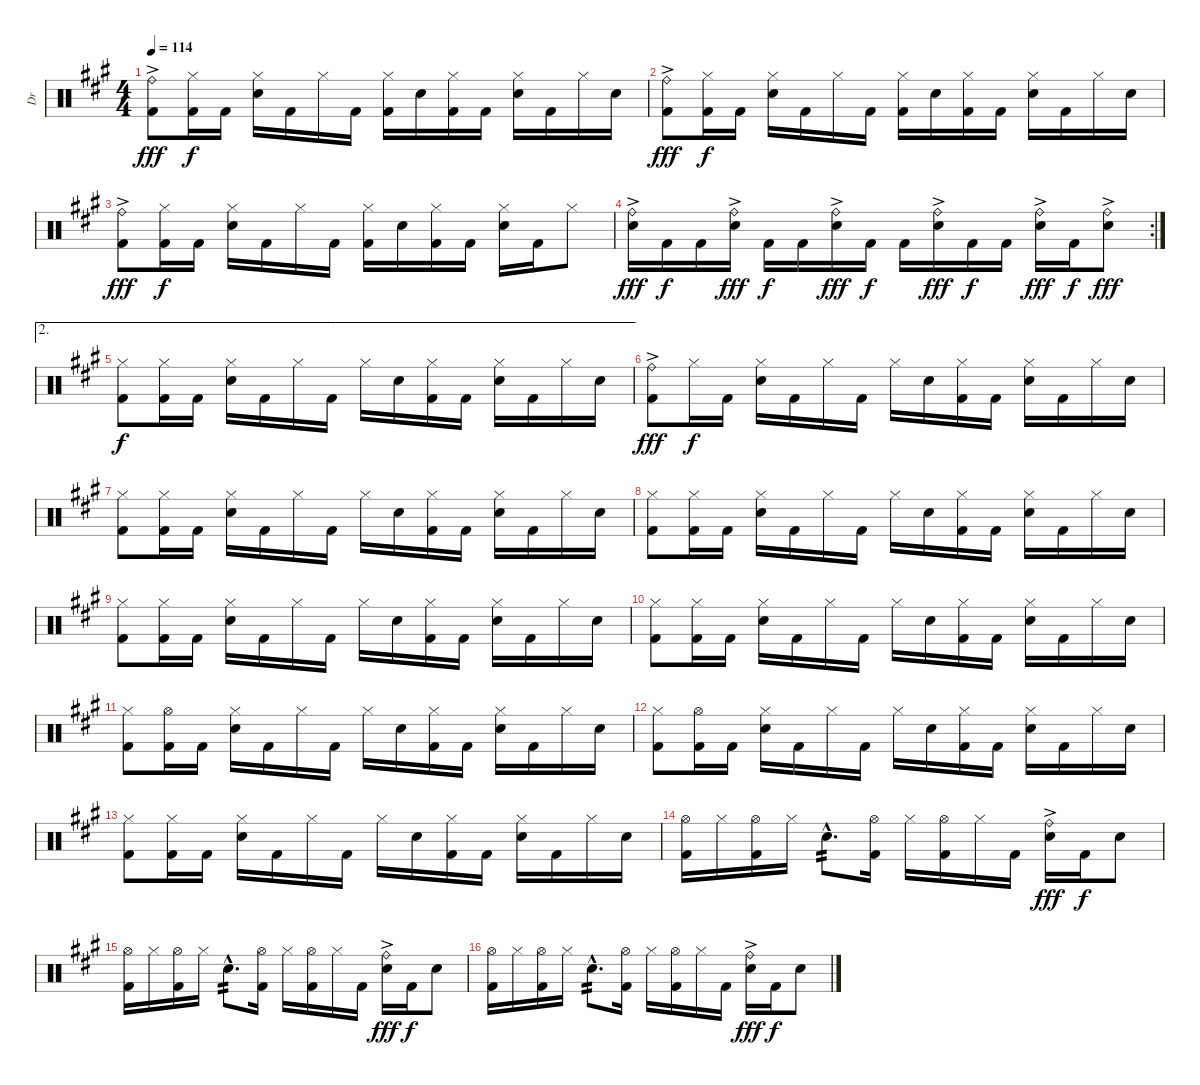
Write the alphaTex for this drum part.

\track ("Dr" "Dr") {instrument percussion}
\staff {score}
\articulation defaults
\ts (4 4)
\tempo 114
\clef neutral
\ks a
("Ride (bell)"{ac} "Kick (hit) 2"{ac}).8{dy fff} ("Hi-Hat (closed)" "Kick (hit) 2").16{dy f} "Kick (hit) 2".16 ("Hi-Hat (closed)" "Electric Snare (hit)").16 "Kick (hit) 2".16 "Hi-Hat (closed)".16 "Kick (hit) 2".16 ("Hi-Hat (closed)" "Kick (hit) 2").16 "Electric Snare (hit)".16 ("Hi-Hat (closed)" "Kick (hit) 2").16 "Kick (hit) 2".16 ("Hi-Hat (closed)" "Electric Snare (hit)").16 "Kick (hit) 2".16 "Hi-Hat (closed)".16 "Electric Snare (hit)".16 |
("Ride (bell)"{ac} "Kick (hit) 2"{ac}).8{dy fff} ("Hi-Hat (closed)" "Kick (hit) 2").16{dy f} "Kick (hit) 2".16 ("Hi-Hat (closed)" "Electric Snare (hit)").16 "Kick (hit) 2".16 "Hi-Hat (closed)".16 "Kick (hit) 2".16 ("Hi-Hat (closed)" "Kick (hit) 2").16 "Electric Snare (hit)".16 ("Hi-Hat (closed)" "Kick (hit) 2").16 "Kick (hit) 2".16 ("Hi-Hat (closed)" "Electric Snare (hit)").16 "Kick (hit) 2".16 "Hi-Hat (closed)".16 "Electric Snare (hit)".16 |
("Ride (bell)"{ac} "Kick (hit) 2"{ac}).8{dy fff} ("Hi-Hat (closed)" "Kick (hit) 2").16{dy f} "Kick (hit) 2".16 ("Hi-Hat (closed)" "Electric Snare (hit)").16 "Kick (hit) 2".16 "Hi-Hat (closed)".16 "Kick (hit) 2".16 ("Hi-Hat (closed)" "Kick (hit) 2").16 "Electric Snare (hit)".16 ("Hi-Hat (closed)" "Kick (hit) 2").16 "Kick (hit) 2".16 ("Hi-Hat (closed)" "Electric Snare (hit)").16 "Kick (hit) 2".16 "Hi-Hat (closed)".8 |
\rc 2
("Ride (bell)"{ac} "Electric Snare (hit)"{ac}).16{dy fff} "Kick (hit) 2".16{dy f} "Kick (hit) 2".16 ("Ride (bell)"{ac} "Electric Snare (hit)"{ac}).16{dy fff} "Kick (hit) 2".16{dy f} "Kick (hit) 2".16 ("Ride (bell)"{ac} "Electric Snare (hit)"{ac}).16{dy fff} "Kick (hit) 2".16{dy f} "Kick (hit) 2".16 ("Ride (bell)"{ac} "Electric Snare (hit)"{ac}).16{dy fff} "Kick (hit) 2".16{dy f} "Kick (hit) 2".16 ("Ride (bell)"{ac} "Electric Snare (hit)"{ac}).16{dy fff} "Kick (hit) 2".16{dy f} ("Ride (bell)"{ac} "Electric Snare (hit)"{ac}).8{dy fff} |
\ae 2
("Hi-Hat (closed)" "Kick (hit) 2").8{dy f} ("Hi-Hat (closed)" "Kick (hit) 2").16 "Kick (hit) 2".16 ("Hi-Hat (closed)" "Electric Snare (hit)").16 "Kick (hit) 2".16 "Hi-Hat (closed)".16 "Kick (hit) 2".16 "Hi-Hat (closed)".16 "Electric Snare (hit)".16 ("Hi-Hat (closed)" "Kick (hit) 2").16 "Kick (hit) 2".16 ("Hi-Hat (closed)" "Electric Snare (hit)").16 "Kick (hit) 2".16 "Hi-Hat (closed)".16 "Electric Snare (hit)".16 |
("Ride (bell)"{ac} "Kick (hit) 2"{ac}).8{dy fff} "Hi-Hat (closed)".16{dy f} "Kick (hit) 2".16 ("Hi-Hat (closed)" "Electric Snare (hit)").16 "Kick (hit) 2".16 "Hi-Hat (closed)".16 "Kick (hit) 2".16 "Hi-Hat (closed)".16 "Electric Snare (hit)".16 ("Hi-Hat (closed)" "Kick (hit) 2").16 "Kick (hit) 2".16 ("Hi-Hat (closed)" "Electric Snare (hit)").16 "Kick (hit) 2".16 "Hi-Hat (closed)".16 "Electric Snare (hit)".16 |
("Hi-Hat (closed)" "Kick (hit) 2").8 ("Hi-Hat (closed)" "Kick (hit) 2").16 "Kick (hit) 2".16 ("Hi-Hat (closed)" "Electric Snare (hit)").16 "Kick (hit) 2".16 "Hi-Hat (closed)".16 "Kick (hit) 2".16 "Hi-Hat (closed)".16 "Electric Snare (hit)".16 ("Hi-Hat (closed)" "Kick (hit) 2").16 "Kick (hit) 2".16 ("Hi-Hat (closed)" "Electric Snare (hit)").16 "Kick (hit) 2".16 "Hi-Hat (closed)".16 "Electric Snare (hit)".16 |
("Hi-Hat (closed)" "Kick (hit) 2").8 ("Hi-Hat (closed)" "Kick (hit) 2").16 "Kick (hit) 2".16 ("Hi-Hat (closed)" "Electric Snare (hit)").16 "Kick (hit) 2".16 "Hi-Hat (closed)".16 "Kick (hit) 2".16 "Hi-Hat (closed)".16 "Electric Snare (hit)".16 ("Hi-Hat (closed)" "Kick (hit) 2").16 "Kick (hit) 2".16 ("Hi-Hat (closed)" "Electric Snare (hit)").16 "Kick (hit) 2".16 "Hi-Hat (closed)".16 "Electric Snare (hit)".16 |
("Hi-Hat (closed)" "Kick (hit) 2").8 ("Hi-Hat (closed)" "Kick (hit) 2").16 "Kick (hit) 2".16 ("Hi-Hat (closed)" "Electric Snare (hit)").16 "Kick (hit) 2".16 "Hi-Hat (closed)".16 "Kick (hit) 2".16 "Hi-Hat (closed)".16 "Electric Snare (hit)".16 ("Hi-Hat (closed)" "Kick (hit) 2").16 "Kick (hit) 2".16 ("Hi-Hat (closed)" "Electric Snare (hit)").16 "Kick (hit) 2".16 "Hi-Hat (closed)".16 "Electric Snare (hit)".16 |
("Hi-Hat (closed)" "Kick (hit) 2").8 ("Hi-Hat (closed)" "Kick (hit) 2").16 "Kick (hit) 2".16 ("Hi-Hat (closed)" "Electric Snare (hit)").16 "Kick (hit) 2".16 "Hi-Hat (closed)".16 "Kick (hit) 2".16 "Hi-Hat (closed)".16 "Electric Snare (hit)".16 ("Hi-Hat (closed)" "Kick (hit) 2").16 "Kick (hit) 2".16 ("Hi-Hat (closed)" "Electric Snare (hit)").16 "Kick (hit) 2".16 "Hi-Hat (closed)".16 "Electric Snare (hit)".16 |
("Hi-Hat (closed)" "Kick (hit) 2").8 ("Hi-Hat (open)" "Kick (hit) 2").16 "Kick (hit) 2".16 ("Hi-Hat (closed)" "Electric Snare (hit)").16 "Kick (hit) 2".16 "Hi-Hat (closed)".16 "Kick (hit) 2".16 "Hi-Hat (closed)".16 "Electric Snare (hit)".16 ("Hi-Hat (closed)" "Kick (hit) 2").16 "Kick (hit) 2".16 ("Hi-Hat (closed)" "Electric Snare (hit)").16 "Kick (hit) 2".16 "Hi-Hat (closed)".16 "Electric Snare (hit)".16 |
("Hi-Hat (closed)" "Kick (hit) 2").8 ("Hi-Hat (open)" "Kick (hit) 2").16 "Kick (hit) 2".16 ("Hi-Hat (closed)" "Electric Snare (hit)").16 "Kick (hit) 2".16 "Hi-Hat (closed)".16 "Kick (hit) 2".16 "Hi-Hat (closed)".16 "Electric Snare (hit)".16 ("Hi-Hat (closed)" "Kick (hit) 2").16 "Kick (hit) 2".16 ("Hi-Hat (closed)" "Electric Snare (hit)").16 "Kick (hit) 2".16 "Hi-Hat (closed)".16 "Electric Snare (hit)".16 |
("Hi-Hat (closed)" "Kick (hit) 2").8 ("Hi-Hat (closed)" "Kick (hit) 2").16 "Kick (hit) 2".16 ("Hi-Hat (closed)" "Electric Snare (hit)").16 "Kick (hit) 2".16 "Hi-Hat (closed)".16 "Kick (hit) 2".16 "Hi-Hat (closed)".16 "Electric Snare (hit)".16 ("Hi-Hat (closed)" "Kick (hit) 2").16 "Kick (hit) 2".16 ("Hi-Hat (closed)" "Electric Snare (hit)").16 "Kick (hit) 2".16 "Hi-Hat (closed)".16 "Electric Snare (hit)".16 |
("Hi-Hat (open)" "Kick (hit) 2").16 "Hi-Hat (closed)".16 ("Hi-Hat (open)" "Kick (hit) 2").16 "Hi-Hat (closed)".16 "Electric Snare (hit)"{hac}.8{d tp 2} ("Hi-Hat (open)" "Kick (hit) 2").16 "Hi-Hat (closed)".16 ("Hi-Hat (open)" "Kick (hit) 2").16 "Hi-Hat (closed)".16 "Kick (hit) 2".16 ("Ride (bell)"{ac} "Electric Snare (hit)"{ac}).16{dy fff} "Kick (hit) 2".16{dy f} "Electric Snare (hit)".8 |
("Hi-Hat (open)" "Kick (hit) 2").16 "Hi-Hat (closed)".16 ("Hi-Hat (open)" "Kick (hit) 2").16 "Hi-Hat (closed)".16 "Electric Snare (hit)"{hac}.8{d tp 2} ("Hi-Hat (open)" "Kick (hit) 2").16 "Hi-Hat (closed)".16 ("Hi-Hat (open)" "Kick (hit) 2").16 "Hi-Hat (closed)".16 "Kick (hit) 2".16 ("Ride (bell)"{ac} "Electric Snare (hit)"{ac}).16{dy fff} "Kick (hit) 2".16{dy f} "Electric Snare (hit)".8 |
("Hi-Hat (open)" "Kick (hit) 2").16 "Hi-Hat (closed)".16 ("Hi-Hat (open)" "Kick (hit) 2").16 "Hi-Hat (closed)".16 "Electric Snare (hit)"{hac}.8{d tp 2} ("Hi-Hat (open)" "Kick (hit) 2").16 "Hi-Hat (closed)".16 ("Hi-Hat (open)" "Kick (hit) 2").16 "Hi-Hat (closed)".16 "Kick (hit) 2".16 ("Ride (bell)"{ac} "Electric Snare (hit)"{ac}).16{dy fff} "Kick (hit) 2".16{dy f} "Electric Snare (hit)".8
